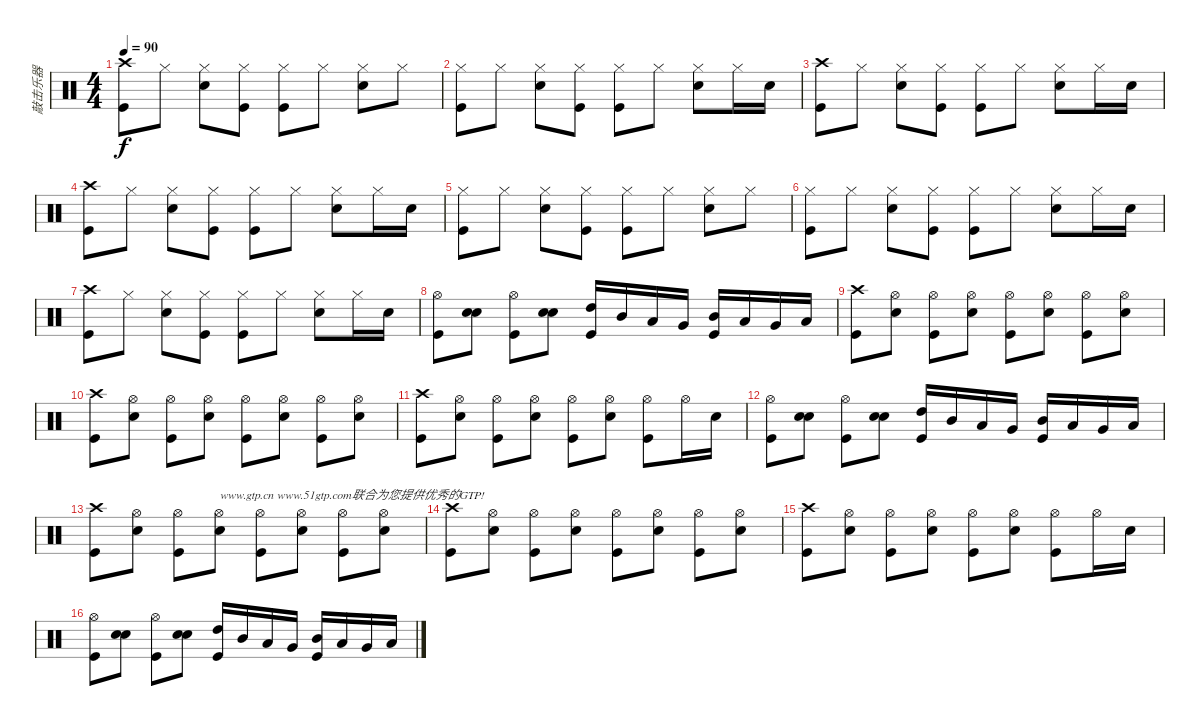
\track ("敲击乐器" "敲击乐器") {instrument percussion}
\staff {score}
\articulation defaults
\ts (4 4)
\tempo 90
\clef neutral
\ks c
("Kick (hit)" "Crash high (hit)").8{dy f} "Hi-Hat (closed)".8 ("Snare (hit) 2" "Hi-Hat (closed)").8 ("Kick (hit)" "Hi-Hat (closed)").8 ("Kick (hit)" "Hi-Hat (closed)").8 "Hi-Hat (closed)".8 ("Snare (hit) 2" "Hi-Hat (closed)").8 "Hi-Hat (closed)".8 |
("Kick (hit)" "Hi-Hat (closed)").8 "Hi-Hat (closed)".8 ("Snare (hit) 2" "Hi-Hat (closed)").8 ("Kick (hit)" "Hi-Hat (closed)").8 ("Kick (hit)" "Hi-Hat (closed)").8 "Hi-Hat (closed)".8 ("Snare (hit) 2" "Hi-Hat (closed)").8 "Hi-Hat (closed)".16 "Snare (hit) 2".16 |
("Kick (hit)" "Crash high (hit)").8 "Hi-Hat (closed)".8 ("Snare (hit) 2" "Hi-Hat (closed)").8 ("Kick (hit)" "Hi-Hat (closed)").8 ("Kick (hit)" "Hi-Hat (closed)").8 "Hi-Hat (closed)".8 ("Snare (hit) 2" "Hi-Hat (closed)").8 "Hi-Hat (closed)".16 "Snare (hit) 2".16 |
("Kick (hit)" "Crash high (hit)").8 "Hi-Hat (closed)".8 ("Snare (hit) 2" "Hi-Hat (closed)").8 ("Kick (hit)" "Hi-Hat (closed)").8 ("Kick (hit)" "Hi-Hat (closed)").8 "Hi-Hat (closed)".8 ("Snare (hit) 2" "Hi-Hat (closed)").8 "Hi-Hat (closed)".16 "Snare (hit) 2".16 |
("Kick (hit)" "Hi-Hat (closed)").8 "Hi-Hat (closed)".8 ("Snare (hit) 2" "Hi-Hat (closed)").8 ("Kick (hit)" "Hi-Hat (closed)").8 ("Kick (hit)" "Hi-Hat (closed)").8 "Hi-Hat (closed)".8 ("Snare (hit) 2" "Hi-Hat (closed)").8 "Hi-Hat (closed)".8 |
("Kick (hit)" "Hi-Hat (closed)").8 "Hi-Hat (closed)".8 ("Snare (hit) 2" "Hi-Hat (closed)").8 ("Kick (hit)" "Hi-Hat (closed)").8 ("Kick (hit)" "Hi-Hat (closed)").8 "Hi-Hat (closed)".8 ("Snare (hit) 2" "Hi-Hat (closed)").8 "Hi-Hat (closed)".16 "Snare (hit) 2".16 |
("Kick (hit)" "Crash high (hit)").8 "Hi-Hat (closed)".8 ("Snare (hit) 2" "Hi-Hat (closed)").8 ("Kick (hit)" "Hi-Hat (closed)").8 ("Kick (hit)" "Hi-Hat (closed)").8 "Hi-Hat (closed)".8 ("Snare (hit) 2" "Hi-Hat (closed)").8 "Hi-Hat (closed)".16 "Snare (hit) 2".16 |
("Hi-Hat (open)" "Kick (hit)").8 ("Snare (hit) 2" "Snare (hit) 2").8 ("Kick (hit)" "Hi-Hat (open)").8 ("Snare (hit) 2" "Snare (hit) 2").8 ("Kick (hit)" "High Tom (hit)").16 "Mid Tom (hit)".16 "Low Tom (hit)".16 "Very Low Tom (hit)".16 ("Kick (hit)" "Mid Tom (hit)").16 "Low Tom (hit)".16 "Very Low Tom (hit)".16 "Low Floor Tom (hit)".16 |
("Kick (hit)" "Crash high (hit)").8 ("Snare (hit) 2" "Hi-Hat (open)").8 ("Kick (hit)" "Hi-Hat (open)").8 ("Snare (hit) 2" "Hi-Hat (open)").8 ("Kick (hit)" "Hi-Hat (open)").8 ("Snare (hit) 2" "Hi-Hat (open)").8 ("Kick (hit)" "Hi-Hat (open)").8 ("Snare (hit) 2" "Hi-Hat (open)").8 |
("Kick (hit)" "Crash high (hit)").8 ("Snare (hit) 2" "Hi-Hat (open)").8 ("Kick (hit)" "Hi-Hat (open)").8 ("Snare (hit) 2" "Hi-Hat (open)").8 ("Kick (hit)" "Hi-Hat (open)").8 ("Snare (hit) 2" "Hi-Hat (open)").8 ("Kick (hit)" "Hi-Hat (open)").8 ("Snare (hit) 2" "Hi-Hat (open)").8 |
("Kick (hit)" "Crash high (hit)").8 ("Snare (hit) 2" "Hi-Hat (open)").8 ("Kick (hit)" "Hi-Hat (open)").8 ("Snare (hit) 2" "Hi-Hat (open)").8 ("Kick (hit)" "Hi-Hat (open)").8 ("Snare (hit) 2" "Hi-Hat (open)").8 ("Kick (hit)" "Hi-Hat (open)").8 "Hi-Hat (open)".16 "Snare (hit) 2".16 |
("Hi-Hat (open)" "Kick (hit)").8 ("Snare (hit) 2" "Snare (hit) 2").8 ("Kick (hit)" "Hi-Hat (open)").8 ("Snare (hit) 2" "Snare (hit) 2").8 ("Kick (hit)" "High Tom (hit)").16 "Mid Tom (hit)".16 "Low Tom (hit)".16 "Very Low Tom (hit)".16 ("Kick (hit)" "Mid Tom (hit)").16 "Low Tom (hit)".16 "Very Low Tom (hit)".16 "Low Floor Tom (hit)".16 |
("Kick (hit)" "Crash high (hit)").8 ("Snare (hit) 2" "Hi-Hat (open)").8 ("Kick (hit)" "Hi-Hat (open)").8 ("Snare (hit) 2" "Hi-Hat (open)").8{txt "www.gtp.cn www.51gtp.com联合为您提供优秀的GTP!"} ("Kick (hit)" "Hi-Hat (open)").8 ("Snare (hit) 2" "Hi-Hat (open)").8 ("Kick (hit)" "Hi-Hat (open)").8 ("Snare (hit) 2" "Hi-Hat (open)").8 |
("Kick (hit)" "Crash high (hit)").8 ("Snare (hit) 2" "Hi-Hat (open)").8 ("Kick (hit)" "Hi-Hat (open)").8 ("Snare (hit) 2" "Hi-Hat (open)").8 ("Kick (hit)" "Hi-Hat (open)").8 ("Snare (hit) 2" "Hi-Hat (open)").8 ("Kick (hit)" "Hi-Hat (open)").8 ("Snare (hit) 2" "Hi-Hat (open)").8 |
("Kick (hit)" "Crash high (hit)").8 ("Snare (hit) 2" "Hi-Hat (open)").8 ("Kick (hit)" "Hi-Hat (open)").8 ("Snare (hit) 2" "Hi-Hat (open)").8 ("Kick (hit)" "Hi-Hat (open)").8 ("Snare (hit) 2" "Hi-Hat (open)").8 ("Kick (hit)" "Hi-Hat (open)").8 "Hi-Hat (open)".16 "Snare (hit) 2".16 |
("Hi-Hat (open)" "Kick (hit)").8 ("Snare (hit) 2" "Snare (hit) 2").8 ("Kick (hit)" "Hi-Hat (open)").8 ("Snare (hit) 2" "Snare (hit) 2").8 ("Kick (hit)" "High Tom (hit)").16 "Mid Tom (hit)".16 "Low Tom (hit)".16 "Very Low Tom (hit)".16 ("Kick (hit)" "Mid Tom (hit)").16 "Low Tom (hit)".16 "Very Low Tom (hit)".16 "Low Floor Tom (hit)".16
